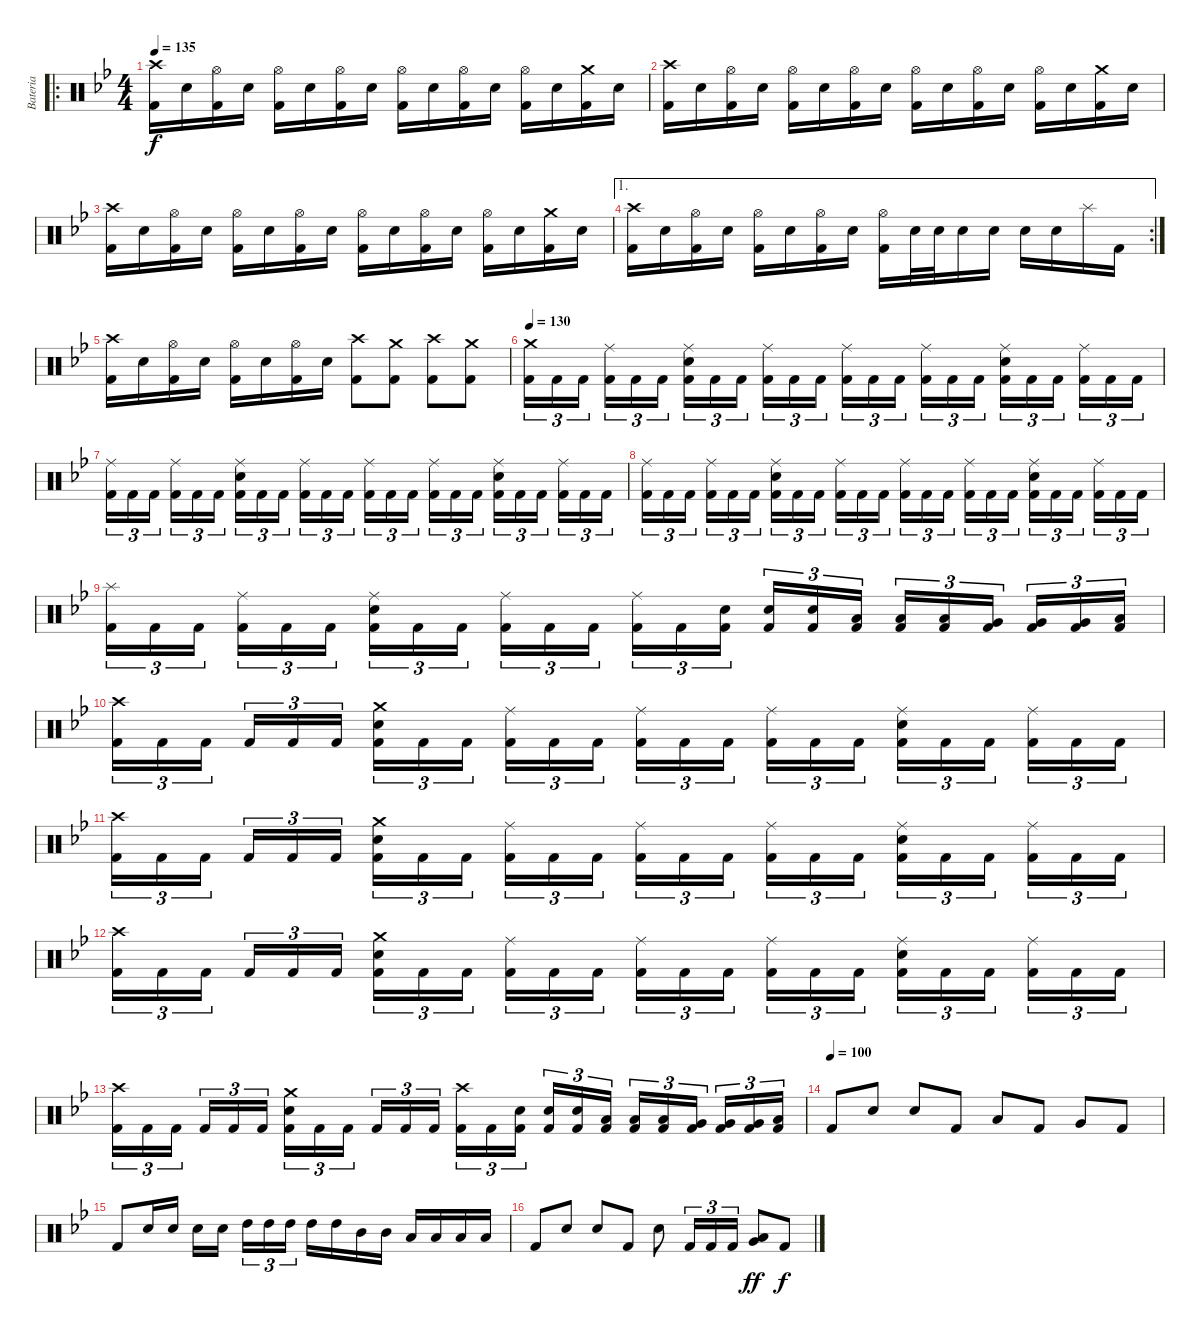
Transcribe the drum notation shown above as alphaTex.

\track ("Bateria" "Bateria") {instrument percussion}
\staff {score}
\articulation defaults
\ro
\ts (4 4)
\tempo 135
\clef neutral
\ks gminor
("Crash high (hit)" "Kick (hit) 2").16{dy f} "Electric Snare (hit)".16 ("Hi-Hat (open)" "Kick (hit) 2").16 "Electric Snare (hit)".16 ("Hi-Hat (open)" "Kick (hit) 2").16 "Electric Snare (hit)".16 ("Hi-Hat (open)" "Kick (hit) 2").16 "Electric Snare (hit)".16 ("Hi-Hat (open)" "Kick (hit) 2").16 "Electric Snare (hit)".16 ("Hi-Hat (open)" "Kick (hit) 2").16 "Electric Snare (hit)".16 ("Hi-Hat (open)" "Kick (hit) 2").16 "Electric Snare (hit)".16 ("Crash medium (hit)" "Kick (hit) 2").16 "Electric Snare (hit)".16 |
("Crash high (hit)" "Kick (hit) 2").16 "Electric Snare (hit)".16 ("Hi-Hat (open)" "Kick (hit) 2").16 "Electric Snare (hit)".16 ("Hi-Hat (open)" "Kick (hit) 2").16 "Electric Snare (hit)".16 ("Hi-Hat (open)" "Kick (hit) 2").16 "Electric Snare (hit)".16 ("Hi-Hat (open)" "Kick (hit) 2").16 "Electric Snare (hit)".16 ("Hi-Hat (open)" "Kick (hit) 2").16 "Electric Snare (hit)".16 ("Hi-Hat (open)" "Kick (hit) 2").16 "Electric Snare (hit)".16 ("Crash medium (hit)" "Kick (hit) 2").16 "Electric Snare (hit)".16 |
("Crash high (hit)" "Kick (hit) 2").16 "Electric Snare (hit)".16 ("Hi-Hat (open)" "Kick (hit) 2").16 "Electric Snare (hit)".16 ("Hi-Hat (open)" "Kick (hit) 2").16 "Electric Snare (hit)".16 ("Hi-Hat (open)" "Kick (hit) 2").16 "Electric Snare (hit)".16 ("Hi-Hat (open)" "Kick (hit) 2").16 "Electric Snare (hit)".16 ("Hi-Hat (open)" "Kick (hit) 2").16 "Electric Snare (hit)".16 ("Hi-Hat (open)" "Kick (hit) 2").16 "Electric Snare (hit)".16 ("Crash medium (hit)" "Kick (hit) 2").16 "Electric Snare (hit)".16 |
\ae 1
\rc 2
("Crash high (hit)" "Kick (hit) 2").16 "Electric Snare (hit)".16 ("Hi-Hat (open)" "Kick (hit) 2").16 "Electric Snare (hit)".16 ("Hi-Hat (open)" "Kick (hit) 2").16 "Electric Snare (hit)".16 ("Hi-Hat (open)" "Kick (hit) 2").16 "Electric Snare (hit)".16 ("Hi-Hat (open)" "Kick (hit) 2").16 "Electric Snare (hit)".32 "Electric Snare (hit)".32 "Electric Snare (hit)".16 "Electric Snare (hit)".16 "Electric Snare (hit)".16 "Electric Snare (hit)".16 "Splash (hit)".16 "Kick (hit) 2".16 |
("Crash high (hit)" "Kick (hit) 2").16 "Electric Snare (hit)".16 ("Hi-Hat (open)" "Kick (hit) 2").16 "Electric Snare (hit)".16 ("Hi-Hat (open)" "Kick (hit) 2").16 "Electric Snare (hit)".16 ("Hi-Hat (open)" "Kick (hit) 2").16 "Electric Snare (hit)".16 ("Crash high (hit)" "Kick (hit) 2").8 ("Crash medium (hit)" "Kick (hit) 2").8 ("Crash high (hit)" "Kick (hit) 2").8 ("Crash medium (hit)" "Kick (hit) 2").8 |
\tempo 130
("Crash medium (hit)" "Kick (hit) 2").16{tu (3 2)} "Kick (hit) 2".16{tu (3 2)} "Kick (hit) 2".16{tu (3 2) beam splitsecondary} ("Ride (middle)" "Kick (hit) 2").16{tu (3 2)} "Kick (hit) 2".16{tu (3 2)} "Kick (hit) 2".16{tu (3 2)} ("Ride (middle)" "Electric Snare (hit)" "Kick (hit) 2").16{tu (3 2)} "Kick (hit) 2".16{tu (3 2)} "Kick (hit) 2".16{tu (3 2) beam splitsecondary} ("Ride (middle)" "Kick (hit) 2").16{tu (3 2)} "Kick (hit) 2".16{tu (3 2)} "Kick (hit) 2".16{tu (3 2)} ("Ride (middle)" "Kick (hit) 2").16{tu (3 2)} "Kick (hit) 2".16{tu (3 2)} "Kick (hit) 2".16{tu (3 2) beam splitsecondary} ("Ride (middle)" "Kick (hit) 2").16{tu (3 2)} "Kick (hit) 2".16{tu (3 2)} "Kick (hit) 2".16{tu (3 2)} ("Ride (middle)" "Electric Snare (hit)" "Kick (hit) 2").16{tu (3 2)} "Kick (hit) 2".16{tu (3 2)} "Kick (hit) 2".16{tu (3 2) beam splitsecondary} ("Ride (middle)" "Kick (hit) 2").16{tu (3 2)} "Kick (hit) 2".16{tu (3 2)} "Kick (hit) 2".16{tu (3 2)} |
("Ride (middle)" "Kick (hit) 2").16{tu (3 2)} "Kick (hit) 2".16{tu (3 2)} "Kick (hit) 2".16{tu (3 2) beam splitsecondary} ("Ride (middle)" "Kick (hit) 2").16{tu (3 2)} "Kick (hit) 2".16{tu (3 2)} "Kick (hit) 2".16{tu (3 2)} ("Ride (middle)" "Electric Snare (hit)" "Kick (hit) 2").16{tu (3 2)} "Kick (hit) 2".16{tu (3 2)} "Kick (hit) 2".16{tu (3 2) beam splitsecondary} ("Ride (middle)" "Kick (hit) 2").16{tu (3 2)} "Kick (hit) 2".16{tu (3 2)} "Kick (hit) 2".16{tu (3 2)} ("Ride (middle)" "Kick (hit) 2").16{tu (3 2)} "Kick (hit) 2".16{tu (3 2)} "Kick (hit) 2".16{tu (3 2) beam splitsecondary} ("Ride (middle)" "Kick (hit) 2").16{tu (3 2)} "Kick (hit) 2".16{tu (3 2)} "Kick (hit) 2".16{tu (3 2)} ("Ride (middle)" "Electric Snare (hit)" "Kick (hit) 2").16{tu (3 2)} "Kick (hit) 2".16{tu (3 2)} "Kick (hit) 2".16{tu (3 2) beam splitsecondary} ("Ride (middle)" "Kick (hit) 2").16{tu (3 2)} "Kick (hit) 2".16{tu (3 2)} "Kick (hit) 2".16{tu (3 2)} |
("Ride (middle)" "Kick (hit) 2").16{tu (3 2)} "Kick (hit) 2".16{tu (3 2)} "Kick (hit) 2".16{tu (3 2) beam splitsecondary} ("Ride (middle)" "Kick (hit) 2").16{tu (3 2)} "Kick (hit) 2".16{tu (3 2)} "Kick (hit) 2".16{tu (3 2)} ("Ride (middle)" "Electric Snare (hit)" "Kick (hit) 2").16{tu (3 2)} "Kick (hit) 2".16{tu (3 2)} "Kick (hit) 2".16{tu (3 2) beam splitsecondary} ("Ride (middle)" "Kick (hit) 2").16{tu (3 2)} "Kick (hit) 2".16{tu (3 2)} "Kick (hit) 2".16{tu (3 2)} ("Ride (middle)" "Kick (hit) 2").16{tu (3 2)} "Kick (hit) 2".16{tu (3 2)} "Kick (hit) 2".16{tu (3 2) beam splitsecondary} ("Ride (middle)" "Kick (hit) 2").16{tu (3 2)} "Kick (hit) 2".16{tu (3 2)} "Kick (hit) 2".16{tu (3 2)} ("Ride (middle)" "Electric Snare (hit)" "Kick (hit) 2").16{tu (3 2)} "Kick (hit) 2".16{tu (3 2)} "Kick (hit) 2".16{tu (3 2) beam splitsecondary} ("Ride (middle)" "Kick (hit) 2").16{tu (3 2)} "Kick (hit) 2".16{tu (3 2)} "Kick (hit) 2".16{tu (3 2)} |
("Splash (hit)" "Kick (hit) 2").16{tu (3 2)} "Kick (hit) 2".16{tu (3 2)} "Kick (hit) 2".16{tu (3 2) beam splitsecondary} ("Ride (middle)" "Kick (hit) 2").16{tu (3 2)} "Kick (hit) 2".16{tu (3 2)} "Kick (hit) 2".16{tu (3 2)} ("Ride (middle)" "Electric Snare (hit)" "Kick (hit) 2").16{tu (3 2)} "Kick (hit) 2".16{tu (3 2)} "Kick (hit) 2".16{tu (3 2) beam splitsecondary} ("Ride (middle)" "Kick (hit) 2").16{tu (3 2)} "Kick (hit) 2".16{tu (3 2)} "Kick (hit) 2".16{tu (3 2)} ("Ride (middle)" "Kick (hit) 2").16{tu (3 2)} "Kick (hit) 2".16{tu (3 2)} ("Electric Snare (hit)" "Kick (hit) 2").16{tu (3 2) beam splitsecondary} ("Electric Snare (hit)" "Kick (hit) 2").16{tu (3 2)} ("Electric Snare (hit)" "Kick (hit) 2").16{tu (3 2)} ("Low Tom (hit)" "Kick (hit) 2").16{tu (3 2)} ("Low Tom (hit)" "Kick (hit) 2").16{tu (3 2)} ("Low Tom (hit)" "Kick (hit) 2").16{tu (3 2)} ("Very Low Tom (hit)" "Kick (hit) 2").16{tu (3 2) beam splitsecondary} ("Very Low Tom (hit)" "Kick (hit) 2").16{tu (3 2)} ("Very Low Tom (hit)" "Kick (hit) 2").16{tu (3 2)} ("Low Floor Tom (hit)" "Kick (hit) 2").16{tu (3 2)} |
("Crash high (hit)" "Kick (hit) 2").16{tu (3 2)} "Kick (hit) 2".16{tu (3 2)} "Kick (hit) 2".16{tu (3 2) beam splitsecondary} "Kick (hit) 2".16{tu (3 2)} "Kick (hit) 2".16{tu (3 2)} "Kick (hit) 2".16{tu (3 2)} ("Crash medium (hit)" "Electric Snare (hit)" "Kick (hit) 2").16{tu (3 2)} "Kick (hit) 2".16{tu (3 2)} "Kick (hit) 2".16{tu (3 2) beam splitsecondary} ("Ride (middle)" "Kick (hit) 2").16{tu (3 2)} "Kick (hit) 2".16{tu (3 2)} "Kick (hit) 2".16{tu (3 2)} ("Ride (middle)" "Kick (hit) 2").16{tu (3 2)} "Kick (hit) 2".16{tu (3 2)} "Kick (hit) 2".16{tu (3 2) beam splitsecondary} ("Ride (middle)" "Kick (hit) 2").16{tu (3 2)} "Kick (hit) 2".16{tu (3 2)} "Kick (hit) 2".16{tu (3 2)} ("Ride (middle)" "Electric Snare (hit)" "Kick (hit) 2").16{tu (3 2)} "Kick (hit) 2".16{tu (3 2)} "Kick (hit) 2".16{tu (3 2) beam splitsecondary} ("Ride (middle)" "Kick (hit) 2").16{tu (3 2)} "Kick (hit) 2".16{tu (3 2)} "Kick (hit) 2".16{tu (3 2)} |
("Crash high (hit)" "Kick (hit) 2").16{tu (3 2)} "Kick (hit) 2".16{tu (3 2)} "Kick (hit) 2".16{tu (3 2) beam splitsecondary} "Kick (hit) 2".16{tu (3 2)} "Kick (hit) 2".16{tu (3 2)} "Kick (hit) 2".16{tu (3 2)} ("Crash medium (hit)" "Electric Snare (hit)" "Kick (hit) 2").16{tu (3 2)} "Kick (hit) 2".16{tu (3 2)} "Kick (hit) 2".16{tu (3 2) beam splitsecondary} ("Ride (middle)" "Kick (hit) 2").16{tu (3 2)} "Kick (hit) 2".16{tu (3 2)} "Kick (hit) 2".16{tu (3 2)} ("Ride (middle)" "Kick (hit) 2").16{tu (3 2)} "Kick (hit) 2".16{tu (3 2)} "Kick (hit) 2".16{tu (3 2) beam splitsecondary} ("Ride (middle)" "Kick (hit) 2").16{tu (3 2)} "Kick (hit) 2".16{tu (3 2)} "Kick (hit) 2".16{tu (3 2)} ("Ride (middle)" "Electric Snare (hit)" "Kick (hit) 2").16{tu (3 2)} "Kick (hit) 2".16{tu (3 2)} "Kick (hit) 2".16{tu (3 2) beam splitsecondary} ("Ride (middle)" "Kick (hit) 2").16{tu (3 2)} "Kick (hit) 2".16{tu (3 2)} "Kick (hit) 2".16{tu (3 2)} |
("Crash high (hit)" "Kick (hit) 2").16{tu (3 2)} "Kick (hit) 2".16{tu (3 2)} "Kick (hit) 2".16{tu (3 2) beam splitsecondary} "Kick (hit) 2".16{tu (3 2)} "Kick (hit) 2".16{tu (3 2)} "Kick (hit) 2".16{tu (3 2)} ("Crash medium (hit)" "Electric Snare (hit)" "Kick (hit) 2").16{tu (3 2)} "Kick (hit) 2".16{tu (3 2)} "Kick (hit) 2".16{tu (3 2) beam splitsecondary} ("Ride (middle)" "Kick (hit) 2").16{tu (3 2)} "Kick (hit) 2".16{tu (3 2)} "Kick (hit) 2".16{tu (3 2)} ("Ride (middle)" "Kick (hit) 2").16{tu (3 2)} "Kick (hit) 2".16{tu (3 2)} "Kick (hit) 2".16{tu (3 2) beam splitsecondary} ("Ride (middle)" "Kick (hit) 2").16{tu (3 2)} "Kick (hit) 2".16{tu (3 2)} "Kick (hit) 2".16{tu (3 2)} ("Ride (middle)" "Electric Snare (hit)" "Kick (hit) 2").16{tu (3 2)} "Kick (hit) 2".16{tu (3 2)} "Kick (hit) 2".16{tu (3 2) beam splitsecondary} ("Ride (middle)" "Kick (hit) 2").16{tu (3 2)} "Kick (hit) 2".16{tu (3 2)} "Kick (hit) 2".16{tu (3 2)} |
("Crash high (hit)" "Kick (hit) 2").16{tu (3 2)} "Kick (hit) 2".16{tu (3 2)} "Kick (hit) 2".16{tu (3 2) beam splitsecondary} "Kick (hit) 2".16{tu (3 2)} "Kick (hit) 2".16{tu (3 2)} "Kick (hit) 2".16{tu (3 2)} ("Crash medium (hit)" "Electric Snare (hit)" "Kick (hit) 2").16{tu (3 2)} "Kick (hit) 2".16{tu (3 2)} "Kick (hit) 2".16{tu (3 2) beam splitsecondary} "Kick (hit) 2".16{tu (3 2)} "Kick (hit) 2".16{tu (3 2)} "Kick (hit) 2".16{tu (3 2)} ("Crash high (hit)" "Kick (hit) 2").16{tu (3 2)} "Kick (hit) 2".16{tu (3 2)} ("Electric Snare (hit)" "Kick (hit) 2").16{tu (3 2) beam splitsecondary} ("Electric Snare (hit)" "Kick (hit) 2").16{tu (3 2)} ("Electric Snare (hit)" "Kick (hit) 2").16{tu (3 2)} ("Low Tom (hit)" "Kick (hit) 2").16{tu (3 2)} ("Low Tom (hit)" "Kick (hit) 2").16{tu (3 2)} ("Low Tom (hit)" "Kick (hit) 2").16{tu (3 2)} ("Very Low Tom (hit)" "Kick (hit) 2").16{tu (3 2) beam splitsecondary} ("Very Low Tom (hit)" "Kick (hit) 2").16{tu (3 2)} ("Very Low Tom (hit)" "Kick (hit) 2").16{tu (3 2)} ("Low Floor Tom (hit)" "Kick (hit) 2").16{tu (3 2)} |
\tempo (100)
"Kick (hit) 2".8 "Electric Snare (hit)".8 "Electric Snare (hit)".8 "Kick (hit) 2".8 "Low Tom (hit)".8 "Kick (hit) 2".8 "Very Low Tom (hit)".8 "Kick (hit) 2".8 |
"Kick (hit) 2".8 "Electric Snare (hit)".16 "Electric Snare (hit)".16 "Electric Snare (hit)".16 "Electric Snare (hit)".16{beam splitsecondary} "High Tom (hit)".16{tu (3 2)} "High Tom (hit)".16{tu (3 2)} "High Tom (hit)".16{tu (3 2)} "High Tom (hit)".16 "High Tom (hit)".16 "Mid Tom (hit)".16 "Mid Tom (hit)".16 "Low Tom (hit)".16 "Low Tom (hit)".16 "Low Tom (hit)".16 "Low Tom (hit)".16 |
"Kick (hit) 2".8 "Electric Snare (hit)".8 "Electric Snare (hit)".8 "Kick (hit) 2".8 "Electric Snare (hit)".8 "Kick (hit) 2".16{tu (3 2)} "Kick (hit) 2".16{tu (3 2)} "Kick (hit) 2".16{tu (3 2)} ("Low Floor Tom (hit)" "Very Low Tom (hit)").8{dy ff} "Kick (hit) 2".8{dy f}
